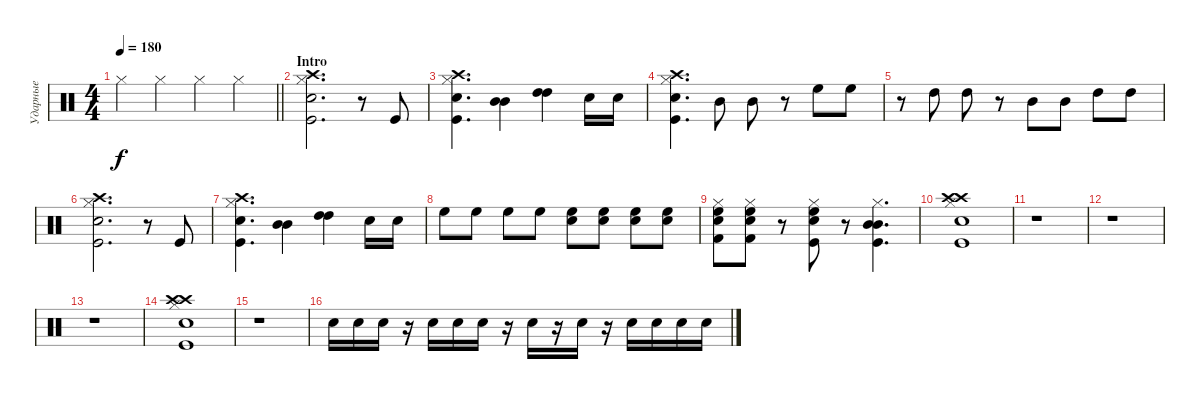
\track ("Ударные" "Ударные") {instrument percussion}
\staff {score}
\articulation defaults
\ts (4 4)
\tempo 180
\clef neutral
\barLineRight lightlight
\ks c "Hi-Hat (closed)".4{dy f} "Hi-Hat (closed)".4 "Hi-Hat (closed)".4 "Hi-Hat (closed)".4
|
\section ("" "Intro")
("Crash high (hit)" "Hi-Hat (closed)" "Electric Snare (hit)" "Kick (hit)").2{d} r.8 "Kick (hit)".8 |
("Crash high (hit)" "Hi-Hat (closed)" "Electric Snare (hit)" "Kick (hit)").4{d} ("Mid Tom (hit)" "Mid Tom (hit)").4 ("High Tom (hit)" "High Tom (hit)").4 "Electric Snare (hit)".16 "Electric Snare (hit)".16 |
("Crash high (hit)" "Hi-Hat (closed)" "Electric Snare (hit)" "Kick (hit)").4{d} "Mid Tom (hit)".8 "Mid Tom (hit)".8 r.8 "High Floor Tom (hit)".8 "High Floor Tom (hit)".8 |
r.8 "High Tom (hit)".8 "High Tom (hit)".8 r.8 "Mid Tom (hit)".8 "Mid Tom (hit)".8 "High Tom (hit)".8 "High Tom (hit)".8 |
("Crash high (hit)" "Hi-Hat (closed)" "Electric Snare (hit)" "Kick (hit)").2{d} r.8 "Kick (hit)".8 |
("Crash high (hit)" "Hi-Hat (closed)" "Electric Snare (hit)" "Kick (hit)").4{d} ("Mid Tom (hit)" "Mid Tom (hit)").4 ("High Tom (hit)" "High Tom (hit)").4 "Electric Snare (hit)".16 "Electric Snare (hit)".16 |
"High Floor Tom (hit)".8 "High Floor Tom (hit)".8 "High Floor Tom (hit)".8 "High Floor Tom (hit)".8 ("Electric Snare (hit)" "High Floor Tom (hit)").8 ("Electric Snare (hit)" "High Floor Tom (hit)").8 ("Electric Snare (hit)" "High Floor Tom (hit)").8 ("Electric Snare (hit)" "High Floor Tom (hit)").8 |
("Hi-Hat (closed)" "Electric Snare (hit)" "High Floor Tom (hit)" "Kick (hit) 2").8 ("Hi-Hat (closed)" "Electric Snare (hit)" "High Floor Tom (hit)" "Kick (hit) 2").8 r.8 ("Hi-Hat (closed)" "Electric Snare (hit)" "High Floor Tom (hit)" "Kick (hit)").8 r.8 ("Hi-Hat (closed)" "Mid Tom (hit)" "Mid Tom (hit)" "Kick (hit)").4{d} |
("Crash high (hit)" "Crash high (hit)" "Hi-Hat (closed)" "Electric Snare (hit)" "Kick (hit)").1 |
r.1 |
r.1 |
r.1 |
("Crash high (hit)" "Crash high (hit)" "Hi-Hat (closed)" "Electric Snare (hit)" "Kick (hit)").1 |
r.1 |
"Electric Snare (hit)".16 "Electric Snare (hit)".16 "Electric Snare (hit)".16 r.16 "Electric Snare (hit)".16 "Electric Snare (hit)".16 "Electric Snare (hit)".16 r.16 "Electric Snare (hit)".16 r.16 "Electric Snare (hit)".16 r.16 "Electric Snare (hit)".16 "Electric Snare (hit)".16 "Electric Snare (hit)".16 "Electric Snare (hit)".16
